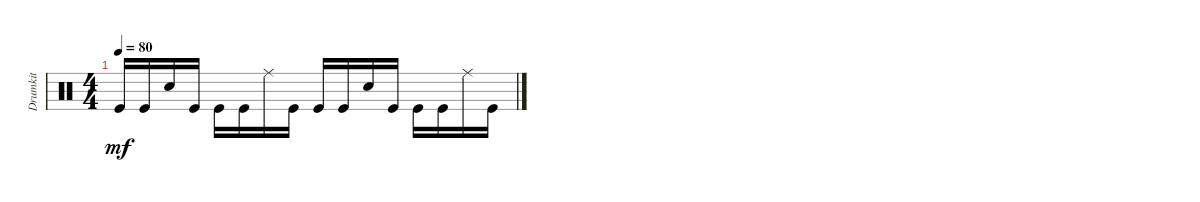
\track ("Drumkit" "Drumkit") {instrument percussion}
\staff {score}
\articulation defaults
\ts (4 4)
\tempo 80
\clef neutral
\ks c "Kick (hit)".16{dy mf} "Kick (hit)".16 "Snare (hit) 2".16 "Kick (hit)".16 "Kick (hit)".16 "Kick (hit)".16 "Ride (middle)".16 "Kick (hit)".16 "Kick (hit)".16 "Kick (hit)".16 "Snare (hit) 2".16 "Kick (hit)".16 "Kick (hit)".16 "Kick (hit)".16 "Ride (middle)".16 "Kick (hit)".16
